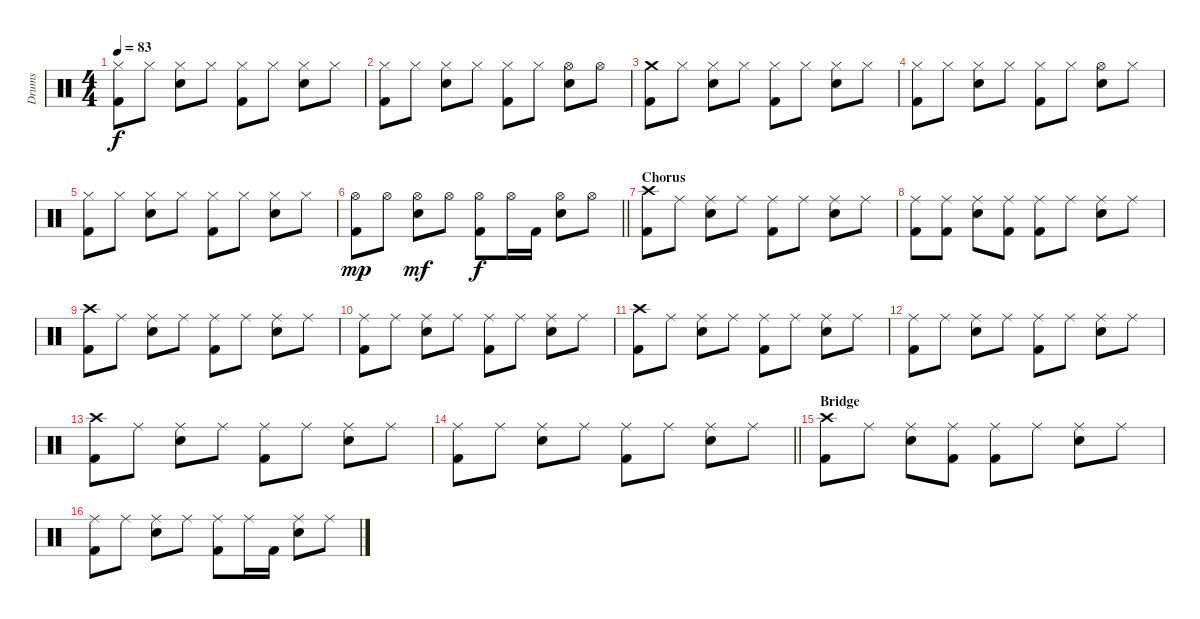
\track ("Drums" "Drums") {instrument percussion}
\staff {score}
\articulation defaults
\ts (4 4)
\tempo 83
\clef neutral
\ks c
("Hi-Hat (closed)" "Kick (hit) 2").8{dy f} "Hi-Hat (closed)".8 ("Hi-Hat (closed)" "Electric Snare (hit)").8 "Hi-Hat (closed)".8 ("Hi-Hat (closed)" "Kick (hit) 2").8 "Hi-Hat (closed)".8 ("Hi-Hat (closed)" "Electric Snare (hit)").8 "Hi-Hat (closed)".8 |
("Hi-Hat (closed)" "Kick (hit) 2").8 "Hi-Hat (closed)".8 ("Hi-Hat (closed)" "Electric Snare (hit)").8 "Hi-Hat (closed)".8 ("Hi-Hat (closed)" "Kick (hit) 2").8 "Hi-Hat (closed)".8 ("Hi-Hat (open)" "Electric Snare (hit)").8 "Hi-Hat (open)".8 |
("Crash medium (hit)" "Kick (hit) 2").8 "Hi-Hat (closed)".8 ("Hi-Hat (closed)" "Electric Snare (hit)").8 "Hi-Hat (closed)".8 ("Hi-Hat (closed)" "Kick (hit) 2").8 "Hi-Hat (closed)".8 ("Hi-Hat (closed)" "Electric Snare (hit)").8 "Hi-Hat (closed)".8 |
("Hi-Hat (closed)" "Kick (hit) 2").8 "Hi-Hat (closed)".8 ("Hi-Hat (closed)" "Electric Snare (hit)").8 "Hi-Hat (closed)".8 ("Hi-Hat (closed)" "Kick (hit) 2").8 "Hi-Hat (closed)".8 ("Hi-Hat (open)" "Electric Snare (hit)").8 "Hi-Hat (closed)".8 |
("Hi-Hat (closed)" "Kick (hit) 2").8 "Hi-Hat (closed)".8 ("Hi-Hat (closed)" "Electric Snare (hit)").8 "Hi-Hat (closed)".8 ("Hi-Hat (closed)" "Kick (hit) 2").8 "Hi-Hat (closed)".8 ("Hi-Hat (closed)" "Electric Snare (hit)").8 "Hi-Hat (closed)".8 |
\barLineRight lightlight
("Hi-Hat (open)" "Kick (hit) 2").8{dy mp} "Hi-Hat (open)".8 ("Hi-Hat (open)" "Electric Snare (hit)").8{dy mf} "Hi-Hat (open)".8 ("Hi-Hat (open)" "Kick (hit) 2").8{dy f} "Hi-Hat (open)".16 "Kick (hit) 2".16 ("Hi-Hat (open)" "Electric Snare (hit)").8 "Hi-Hat (open)".8 |
\section ("" "Chorus")
("Crash high (hit)" "Kick (hit) 2").8 "Ride (middle)".8 ("Ride (middle)" "Electric Snare (hit)").8 "Ride (middle)".8 ("Ride (middle)" "Kick (hit) 2").8 "Ride (middle)".8 ("Ride (middle)" "Electric Snare (hit)").8 "Ride (middle)".8 |
("Ride (middle)" "Kick (hit) 2").8 ("Ride (middle)" "Kick (hit) 2").8 ("Ride (middle)" "Electric Snare (hit)").8 ("Ride (middle)" "Kick (hit) 2").8 ("Ride (middle)" "Kick (hit) 2").8 "Ride (middle)".8 ("Ride (middle)" "Electric Snare (hit)").8 "Ride (middle)".8 |
("Crash high (hit)" "Kick (hit) 2").8 "Ride (middle)".8 ("Ride (middle)" "Electric Snare (hit)").8 "Ride (middle)".8 ("Ride (middle)" "Kick (hit) 2").8 "Ride (middle)".8 ("Ride (middle)" "Electric Snare (hit)").8 "Ride (middle)".8 |
("Ride (middle)" "Kick (hit) 2").8 "Ride (middle)".8 ("Ride (middle)" "Electric Snare (hit)").8 "Ride (middle)".8 ("Ride (middle)" "Kick (hit) 2").8 "Ride (middle)".8 ("Ride (middle)" "Electric Snare (hit)").8 "Ride (middle)".8 |
("Crash high (hit)" "Kick (hit) 2").8 "Ride (middle)".8 ("Ride (middle)" "Electric Snare (hit)").8 "Ride (middle)".8 ("Ride (middle)" "Kick (hit) 2").8 "Ride (middle)".8 ("Ride (middle)" "Electric Snare (hit)").8 "Ride (middle)".8 |
("Ride (middle)" "Kick (hit) 2").8 "Ride (middle)".8 ("Ride (middle)" "Electric Snare (hit)").8 "Ride (middle)".8 ("Ride (middle)" "Kick (hit) 2").8 "Ride (middle)".8 ("Ride (middle)" "Electric Snare (hit)").8 "Ride (middle)".8 |
("Crash high (hit)" "Kick (hit) 2").8 "Ride (middle)".8 ("Ride (middle)" "Electric Snare (hit)").8 "Ride (middle)".8 ("Ride (middle)" "Kick (hit) 2").8 "Ride (middle)".8 ("Ride (middle)" "Electric Snare (hit)").8 "Ride (middle)".8 |
\barLineRight lightlight
("Ride (middle)" "Kick (hit) 2").8 "Ride (middle)".8 ("Ride (middle)" "Electric Snare (hit)").8 "Ride (middle)".8 ("Ride (middle)" "Kick (hit) 2").8 "Ride (middle)".8 ("Ride (middle)" "Electric Snare (hit)").8 "Ride (middle)".8 |
\section ("" "Bridge")
("Crash high (hit)" "Kick (hit) 2").8 "Ride (middle)".8 ("Ride (middle)" "Electric Snare (hit)").8 ("Ride (middle)" "Kick (hit) 2").8 ("Ride (middle)" "Kick (hit) 2").8 "Ride (middle)".8 ("Ride (middle)" "Electric Snare (hit)").8 "Ride (middle)".8 |
("Ride (middle)" "Kick (hit) 2").8 "Ride (middle)".8 ("Ride (middle)" "Electric Snare (hit)").8 "Ride (middle)".8 ("Ride (middle)" "Kick (hit) 2").8 "Ride (middle)".16 "Kick (hit) 2".16 ("Ride (middle)" "Electric Snare (hit)").8 "Ride (middle)".8
